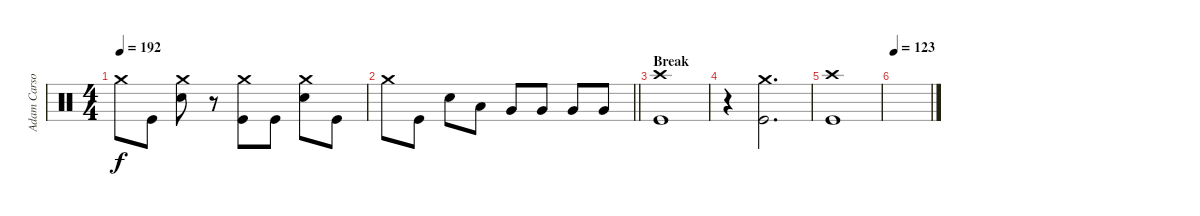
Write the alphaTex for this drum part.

\track ("Adam Carson" "Adam Carso") {instrument percussion}
\staff {score}
\articulation defaults
\ts (4 4)
\tempo 192
\clef neutral
\ks c "Crash medium (hit)".8{dy f} "Kick (hit)".8
("Crash medium (hit)" "Electric Snare (hit)").8 r.8 ("Crash medium (hit)" "Kick (hit)").8 "Kick (hit)".8 ("Crash medium (hit)" "Electric Snare (hit)").8 "Kick (hit)".8 |
\barLineRight lightlight "Crash medium (hit)".8 "Kick (hit)".8 "Electric Snare (hit)".8 "Low Tom (hit)".8 "Very Low Tom (hit)".8 "Very Low Tom (hit)".8 "Very Low Tom (hit)".8 "Very Low Tom (hit)".8
|
\section ("" "Break")
("Crash high (hit)" "Kick (hit)").1 |
r.4 ("Crash medium (hit)" "Kick (hit)").2{d} |
("Crash high (hit)" "Kick (hit)").1 |
\tempo 123
